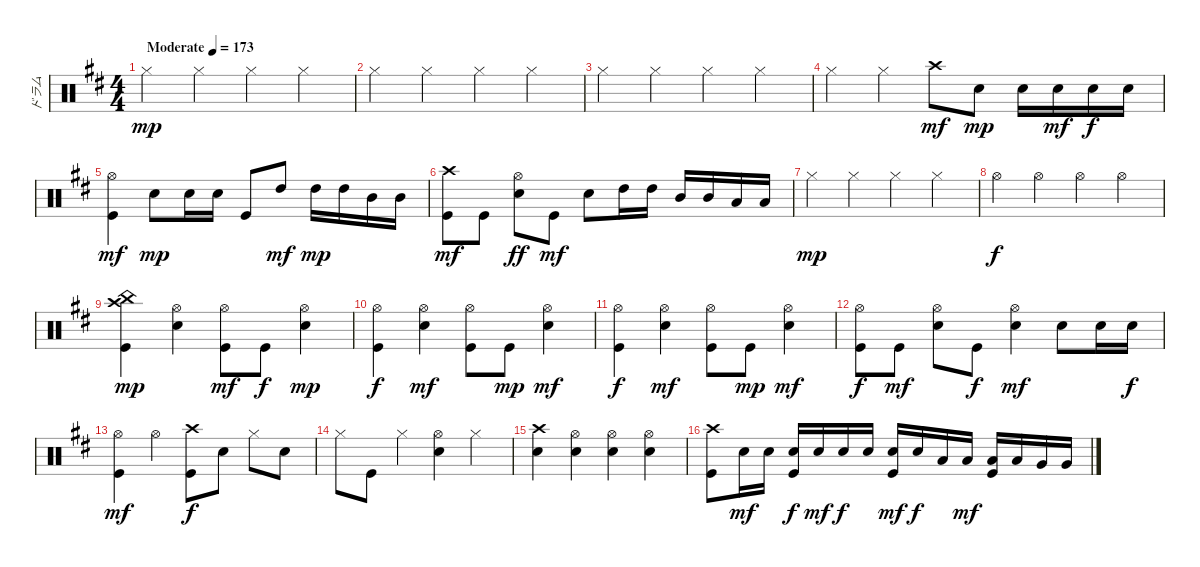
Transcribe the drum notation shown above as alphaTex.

\track ("ドラム" "ドラム") {mute instrument percussion}
\staff {score}
\articulation defaults
\ts (4 4)
\tempo (173 "Moderate")
\clef neutral
\ks d "Hi-Hat (closed)".4{dy mp} "Hi-Hat (closed)".4 "Hi-Hat (closed)".4 "Hi-Hat (closed)".4
|
"Hi-Hat (closed)".4 "Hi-Hat (closed)".4 "Hi-Hat (closed)".4 "Hi-Hat (closed)".4 |
"Hi-Hat (closed)".4 "Hi-Hat (closed)".4 "Hi-Hat (closed)".4 "Hi-Hat (closed)".4 |
"Hi-Hat (closed)".4 "Hi-Hat (closed)".4 "Crash high (hit)".8{dy mf} "Snare (hit) 2".8{dy mp} "Snare (hit) 2".16 "Snare (hit) 2".16{dy mf} "Snare (hit) 2".16{dy f} "Snare (hit) 2".16 |
("Hi-Hat (open)" "Kick (hit)").4{dy mf} "Snare (hit) 2".8{dy mp} "Snare (hit) 2".16 "Snare (hit) 2".16 "Kick (hit)".8 "High Tom (hit)".8{dy mf} "High Tom (hit)".16{dy mp} "High Tom (hit)".16 "Mid Tom (hit)".16 "Mid Tom (hit)".16 |
("Crash high (hit)" "Kick (hit)").8{dy mf} "Kick (hit)".8 ("Hi-Hat (open)" "Snare (hit) 2").8{dy ff} "Kick (hit)".8{dy mf} "Snare (hit) 2".8 "High Tom (hit)".16 "High Tom (hit)".16 "Mid Tom (hit)".16 "Mid Tom (hit)".16 "Low Tom (hit)".16 "Low Tom (hit)".16 |
"Hi-Hat (closed)".4{dy mp} "Hi-Hat (closed)".4 "Hi-Hat (closed)".4 "Hi-Hat (closed)".4 |
"Hi-Hat (open)".4{dy f} "Hi-Hat (open)".4 "Hi-Hat (open)".4 "Hi-Hat (open)".4 |
("China (hit)" "Crash high (hit)" "Kick (hit)").4{dy mp} ("Hi-Hat (open)" "Snare (hit) 2").4 ("Hi-Hat (open)" "Kick (hit)").8{dy mf} "Kick (hit)".8{dy f} ("Hi-Hat (open)" "Snare (hit) 2").4{dy mp} |
("Hi-Hat (open)" "Kick (hit)").4{dy f} ("Hi-Hat (open)" "Snare (hit) 2").4{dy mf} ("Hi-Hat (open)" "Kick (hit)").8 "Kick (hit)".8{dy mp} ("Hi-Hat (open)" "Snare (hit) 2").4{dy mf} |
("Hi-Hat (open)" "Kick (hit)").4{dy f} ("Hi-Hat (open)" "Snare (hit) 2").4{dy mf} ("Hi-Hat (open)" "Kick (hit)").8 "Kick (hit)".8{dy mp} ("Hi-Hat (open)" "Snare (hit) 2").4{dy mf} |
("Hi-Hat (open)" "Kick (hit)").8{dy f} "Kick (hit)".8{dy mf} ("Hi-Hat (open)" "Snare (hit) 2").8 "Kick (hit)".8{dy f} ("Hi-Hat (open)" "Snare (hit) 2").4{dy mf} "Snare (hit) 2".8 "Snare (hit) 2".16 "Snare (hit) 2".16{dy f} |
("Hi-Hat (open)" "Kick (hit)").4{dy mf} "Hi-Hat (open)".4 ("Crash high (hit)" "Kick (hit)").8{dy f} "Snare (hit) 2".8 "Hi-Hat (closed)".8 "Snare (hit) 2".8 |
"Hi-Hat (closed)".8 "Kick (hit)".8 "Hi-Hat (closed)".4 ("Hi-Hat (open)" "Snare (hit) 2").4 "Hi-Hat (closed)".4 |
("Crash high (hit)" "Snare (hit) 2").4 ("Hi-Hat (open)" "Snare (hit) 2").4 ("Hi-Hat (open)" "Snare (hit) 2").4 ("Hi-Hat (open)" "Snare (hit) 2").4 |
("Crash high (hit)" "Kick (hit)").8 "Snare (hit) 2".16{dy mf} "Snare (hit) 2".16 ("Snare (hit) 2" "Kick (hit)").16{dy f} "Snare (hit) 2".16{dy mf} "Snare (hit) 2".16{dy f} "Snare (hit) 2".16 ("Snare (hit) 2" "Kick (hit)").16{dy mf} "Snare (hit) 2".16{dy f} "Low Tom (hit)".16 "Low Tom (hit)".16{dy mf} ("Low Tom (hit)" "Kick (hit)").16 "Low Tom (hit)".16 "Very Low Tom (hit)".16 "Very Low Tom (hit)".16
